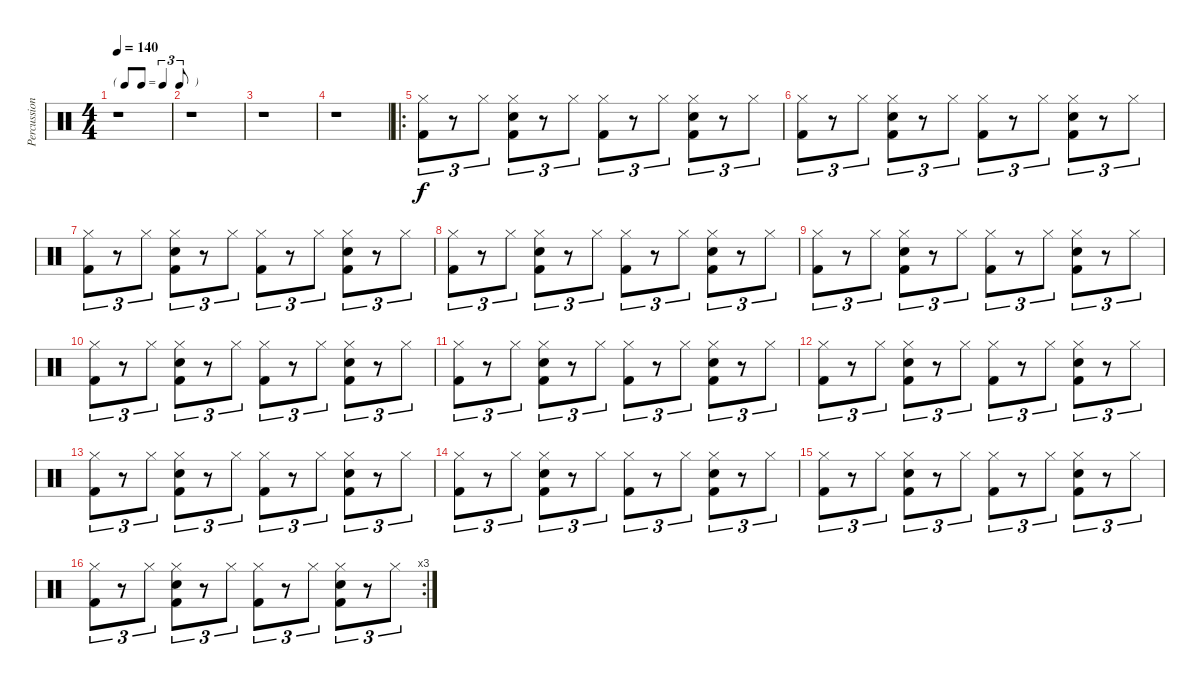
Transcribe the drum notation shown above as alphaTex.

\track ("Percussion" "Percussion") {instrument percussion}
\staff {score}
\articulation defaults
\ts (4 4)
\tf triplet8th
\tempo 140
\clef neutral
\ks c
r.1{dy f} |
r.1 |
r.1 |
r.1 |
\ro
("Hi-Hat (closed)" "Kick (hit) 2").8{tu (3 2)} r.8{tu (3 2)} "Hi-Hat (closed)".8{tu (3 2)} ("Hi-Hat (closed)" "Snare (hit) 2" "Kick (hit) 2").8{tu (3 2)} r.8{tu (3 2)} "Hi-Hat (closed)".8{tu (3 2)} ("Hi-Hat (closed)" "Kick (hit) 2").8{tu (3 2)} r.8{tu (3 2)} "Hi-Hat (closed)".8{tu (3 2)} ("Hi-Hat (closed)" "Snare (hit) 2" "Kick (hit) 2").8{tu (3 2)} r.8{tu (3 2)} "Hi-Hat (closed)".8{tu (3 2)} |
("Hi-Hat (closed)" "Kick (hit) 2").8{tu (3 2)} r.8{tu (3 2)} "Hi-Hat (closed)".8{tu (3 2)} ("Hi-Hat (closed)" "Snare (hit) 2" "Kick (hit) 2").8{tu (3 2)} r.8{tu (3 2)} "Hi-Hat (closed)".8{tu (3 2)} ("Hi-Hat (closed)" "Kick (hit) 2").8{tu (3 2)} r.8{tu (3 2)} "Hi-Hat (closed)".8{tu (3 2)} ("Hi-Hat (closed)" "Snare (hit) 2" "Kick (hit) 2").8{tu (3 2)} r.8{tu (3 2)} "Hi-Hat (closed)".8{tu (3 2)} |
("Hi-Hat (closed)" "Kick (hit) 2").8{tu (3 2)} r.8{tu (3 2)} "Hi-Hat (closed)".8{tu (3 2)} ("Hi-Hat (closed)" "Snare (hit) 2" "Kick (hit) 2").8{tu (3 2)} r.8{tu (3 2)} "Hi-Hat (closed)".8{tu (3 2)} ("Hi-Hat (closed)" "Kick (hit) 2").8{tu (3 2)} r.8{tu (3 2)} "Hi-Hat (closed)".8{tu (3 2)} ("Hi-Hat (closed)" "Snare (hit) 2" "Kick (hit) 2").8{tu (3 2)} r.8{tu (3 2)} "Hi-Hat (closed)".8{tu (3 2)} |
("Hi-Hat (closed)" "Kick (hit) 2").8{tu (3 2)} r.8{tu (3 2)} "Hi-Hat (closed)".8{tu (3 2)} ("Hi-Hat (closed)" "Snare (hit) 2" "Kick (hit) 2").8{tu (3 2)} r.8{tu (3 2)} "Hi-Hat (closed)".8{tu (3 2)} ("Hi-Hat (closed)" "Kick (hit) 2").8{tu (3 2)} r.8{tu (3 2)} "Hi-Hat (closed)".8{tu (3 2)} ("Hi-Hat (closed)" "Snare (hit) 2" "Kick (hit) 2").8{tu (3 2)} r.8{tu (3 2)} "Hi-Hat (closed)".8{tu (3 2)} |
("Hi-Hat (closed)" "Kick (hit) 2").8{tu (3 2)} r.8{tu (3 2)} "Hi-Hat (closed)".8{tu (3 2)} ("Hi-Hat (closed)" "Snare (hit) 2" "Kick (hit) 2").8{tu (3 2)} r.8{tu (3 2)} "Hi-Hat (closed)".8{tu (3 2)} ("Hi-Hat (closed)" "Kick (hit) 2").8{tu (3 2)} r.8{tu (3 2)} "Hi-Hat (closed)".8{tu (3 2)} ("Hi-Hat (closed)" "Snare (hit) 2" "Kick (hit) 2").8{tu (3 2)} r.8{tu (3 2)} "Hi-Hat (closed)".8{tu (3 2)} |
("Hi-Hat (closed)" "Kick (hit) 2").8{tu (3 2)} r.8{tu (3 2)} "Hi-Hat (closed)".8{tu (3 2)} ("Hi-Hat (closed)" "Snare (hit) 2" "Kick (hit) 2").8{tu (3 2)} r.8{tu (3 2)} "Hi-Hat (closed)".8{tu (3 2)} ("Hi-Hat (closed)" "Kick (hit) 2").8{tu (3 2)} r.8{tu (3 2)} "Hi-Hat (closed)".8{tu (3 2)} ("Hi-Hat (closed)" "Snare (hit) 2" "Kick (hit) 2").8{tu (3 2)} r.8{tu (3 2)} "Hi-Hat (closed)".8{tu (3 2)} |
("Hi-Hat (closed)" "Kick (hit) 2").8{tu (3 2)} r.8{tu (3 2)} "Hi-Hat (closed)".8{tu (3 2)} ("Hi-Hat (closed)" "Snare (hit) 2" "Kick (hit) 2").8{tu (3 2)} r.8{tu (3 2)} "Hi-Hat (closed)".8{tu (3 2)} ("Hi-Hat (closed)" "Kick (hit) 2").8{tu (3 2)} r.8{tu (3 2)} "Hi-Hat (closed)".8{tu (3 2)} ("Hi-Hat (closed)" "Snare (hit) 2" "Kick (hit) 2").8{tu (3 2)} r.8{tu (3 2)} "Hi-Hat (closed)".8{tu (3 2)} |
("Hi-Hat (closed)" "Kick (hit) 2").8{tu (3 2)} r.8{tu (3 2)} "Hi-Hat (closed)".8{tu (3 2)} ("Hi-Hat (closed)" "Snare (hit) 2" "Kick (hit) 2").8{tu (3 2)} r.8{tu (3 2)} "Hi-Hat (closed)".8{tu (3 2)} ("Hi-Hat (closed)" "Kick (hit) 2").8{tu (3 2)} r.8{tu (3 2)} "Hi-Hat (closed)".8{tu (3 2)} ("Hi-Hat (closed)" "Snare (hit) 2" "Kick (hit) 2").8{tu (3 2)} r.8{tu (3 2)} "Hi-Hat (closed)".8{tu (3 2)} |
("Hi-Hat (closed)" "Kick (hit) 2").8{tu (3 2)} r.8{tu (3 2)} "Hi-Hat (closed)".8{tu (3 2)} ("Hi-Hat (closed)" "Snare (hit) 2" "Kick (hit) 2").8{tu (3 2)} r.8{tu (3 2)} "Hi-Hat (closed)".8{tu (3 2)} ("Hi-Hat (closed)" "Kick (hit) 2").8{tu (3 2)} r.8{tu (3 2)} "Hi-Hat (closed)".8{tu (3 2)} ("Hi-Hat (closed)" "Snare (hit) 2" "Kick (hit) 2").8{tu (3 2)} r.8{tu (3 2)} "Hi-Hat (closed)".8{tu (3 2)} |
("Hi-Hat (closed)" "Kick (hit) 2").8{tu (3 2)} r.8{tu (3 2)} "Hi-Hat (closed)".8{tu (3 2)} ("Hi-Hat (closed)" "Snare (hit) 2" "Kick (hit) 2").8{tu (3 2)} r.8{tu (3 2)} "Hi-Hat (closed)".8{tu (3 2)} ("Hi-Hat (closed)" "Kick (hit) 2").8{tu (3 2)} r.8{tu (3 2)} "Hi-Hat (closed)".8{tu (3 2)} ("Hi-Hat (closed)" "Snare (hit) 2" "Kick (hit) 2").8{tu (3 2)} r.8{tu (3 2)} "Hi-Hat (closed)".8{tu (3 2)} |
("Hi-Hat (closed)" "Kick (hit) 2").8{tu (3 2)} r.8{tu (3 2)} "Hi-Hat (closed)".8{tu (3 2)} ("Hi-Hat (closed)" "Snare (hit) 2" "Kick (hit) 2").8{tu (3 2)} r.8{tu (3 2)} "Hi-Hat (closed)".8{tu (3 2)} ("Hi-Hat (closed)" "Kick (hit) 2").8{tu (3 2)} r.8{tu (3 2)} "Hi-Hat (closed)".8{tu (3 2)} ("Hi-Hat (closed)" "Snare (hit) 2" "Kick (hit) 2").8{tu (3 2)} r.8{tu (3 2)} "Hi-Hat (closed)".8{tu (3 2)} |
\rc 3
("Hi-Hat (closed)" "Kick (hit) 2").8{tu (3 2)} r.8{tu (3 2)} "Hi-Hat (closed)".8{tu (3 2)} ("Hi-Hat (closed)" "Snare (hit) 2" "Kick (hit) 2").8{tu (3 2)} r.8{tu (3 2)} "Hi-Hat (closed)".8{tu (3 2)} ("Hi-Hat (closed)" "Kick (hit) 2").8{tu (3 2)} r.8{tu (3 2)} "Hi-Hat (closed)".8{tu (3 2)} ("Hi-Hat (closed)" "Snare (hit) 2" "Kick (hit) 2").8{tu (3 2)} r.8{tu (3 2)} "Hi-Hat (closed)".8{tu (3 2)}
